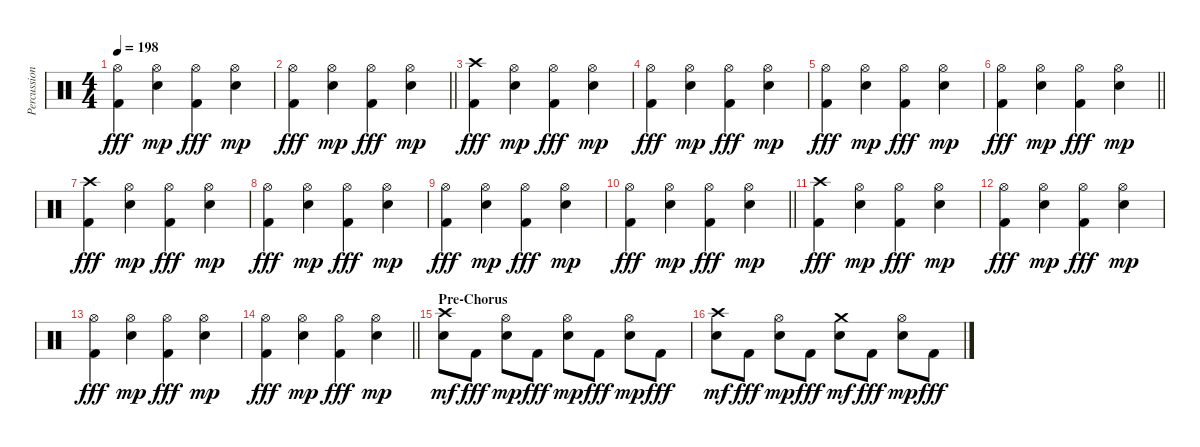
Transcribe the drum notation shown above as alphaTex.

\track ("Percussion" "Percussion") {instrument percussion}
\staff {score}
\articulation defaults
\ts (4 4)
\tempo 198
\clef neutral
\ks c
("Hi-Hat (open)" "Kick (hit) 2").4{dy fff} ("Hi-Hat (open)" "Snare (hit) 2").4{dy mp} ("Hi-Hat (open)" "Kick (hit) 2").4{dy fff} ("Hi-Hat (open)" "Snare (hit) 2").4{dy mp} |
\barLineRight lightlight
("Hi-Hat (open)" "Kick (hit) 2").4{dy fff} ("Hi-Hat (open)" "Snare (hit) 2").4{dy mp} ("Hi-Hat (open)" "Kick (hit) 2").4{dy fff} ("Hi-Hat (open)" "Snare (hit) 2").4{dy mp} |
("Crash high (hit)" "Kick (hit) 2").4{dy fff} ("Hi-Hat (open)" "Snare (hit) 2").4{dy mp} ("Hi-Hat (open)" "Kick (hit) 2").4{dy fff} ("Hi-Hat (open)" "Snare (hit) 2").4{dy mp} |
("Hi-Hat (open)" "Kick (hit) 2").4{dy fff} ("Hi-Hat (open)" "Snare (hit) 2").4{dy mp} ("Hi-Hat (open)" "Kick (hit) 2").4{dy fff} ("Hi-Hat (open)" "Snare (hit) 2").4{dy mp} |
("Hi-Hat (open)" "Kick (hit) 2").4{dy fff} ("Hi-Hat (open)" "Snare (hit) 2").4{dy mp} ("Hi-Hat (open)" "Kick (hit) 2").4{dy fff} ("Hi-Hat (open)" "Snare (hit) 2").4{dy mp} |
\barLineRight lightlight
("Hi-Hat (open)" "Kick (hit) 2").4{dy fff} ("Hi-Hat (open)" "Snare (hit) 2").4{dy mp} ("Hi-Hat (open)" "Kick (hit) 2").4{dy fff} ("Hi-Hat (open)" "Snare (hit) 2").4{dy mp} |
("Crash high (hit)" "Kick (hit) 2").4{dy fff} ("Hi-Hat (open)" "Snare (hit) 2").4{dy mp} ("Hi-Hat (open)" "Kick (hit) 2").4{dy fff} ("Hi-Hat (open)" "Snare (hit) 2").4{dy mp} |
("Hi-Hat (open)" "Kick (hit) 2").4{dy fff} ("Hi-Hat (open)" "Snare (hit) 2").4{dy mp} ("Hi-Hat (open)" "Kick (hit) 2").4{dy fff} ("Hi-Hat (open)" "Snare (hit) 2").4{dy mp} |
("Hi-Hat (open)" "Kick (hit) 2").4{dy fff} ("Hi-Hat (open)" "Snare (hit) 2").4{dy mp} ("Hi-Hat (open)" "Kick (hit) 2").4{dy fff} ("Hi-Hat (open)" "Snare (hit) 2").4{dy mp} |
\barLineRight lightlight
("Hi-Hat (open)" "Kick (hit) 2").4{dy fff} ("Hi-Hat (open)" "Snare (hit) 2").4{dy mp} ("Hi-Hat (open)" "Kick (hit) 2").4{dy fff} ("Hi-Hat (open)" "Snare (hit) 2").4{dy mp} |
("Crash high (hit)" "Kick (hit) 2").4{dy fff} ("Hi-Hat (open)" "Snare (hit) 2").4{dy mp} ("Hi-Hat (open)" "Kick (hit) 2").4{dy fff} ("Hi-Hat (open)" "Snare (hit) 2").4{dy mp} |
("Hi-Hat (open)" "Kick (hit) 2").4{dy fff} ("Hi-Hat (open)" "Snare (hit) 2").4{dy mp} ("Hi-Hat (open)" "Kick (hit) 2").4{dy fff} ("Hi-Hat (open)" "Snare (hit) 2").4{dy mp} |
("Hi-Hat (open)" "Kick (hit) 2").4{dy fff} ("Hi-Hat (open)" "Snare (hit) 2").4{dy mp} ("Hi-Hat (open)" "Kick (hit) 2").4{dy fff} ("Hi-Hat (open)" "Snare (hit) 2").4{dy mp} |
\barLineRight lightlight
("Hi-Hat (open)" "Kick (hit) 2").4{dy fff} ("Hi-Hat (open)" "Snare (hit) 2").4{dy mp} ("Hi-Hat (open)" "Kick (hit) 2").4{dy fff} ("Hi-Hat (open)" "Snare (hit) 2").4{dy mp} |
\section ("" "Pre-Chorus")
("Crash high (hit)" "Snare (hit) 2").8{dy mf} "Kick (hit) 2".8{dy fff} ("Hi-Hat (open)" "Snare (hit) 2").8{dy mp} "Kick (hit) 2".8{dy fff} ("Hi-Hat (open)" "Snare (hit) 2").8{dy mp} "Kick (hit) 2".8{dy fff} ("Hi-Hat (open)" "Snare (hit) 2").8{dy mp} "Kick (hit) 2".8{dy fff} |
("Crash high (hit)" "Snare (hit) 2").8{dy mf} "Kick (hit) 2".8{dy fff} ("Hi-Hat (open)" "Snare (hit) 2").8{dy mp} "Kick (hit) 2".8{dy fff} ("Crash medium (hit)" "Snare (hit) 2").8{dy mf} "Kick (hit) 2".8{dy fff} ("Hi-Hat (open)" "Snare (hit) 2").8{dy mp} "Kick (hit) 2".8{dy fff}
